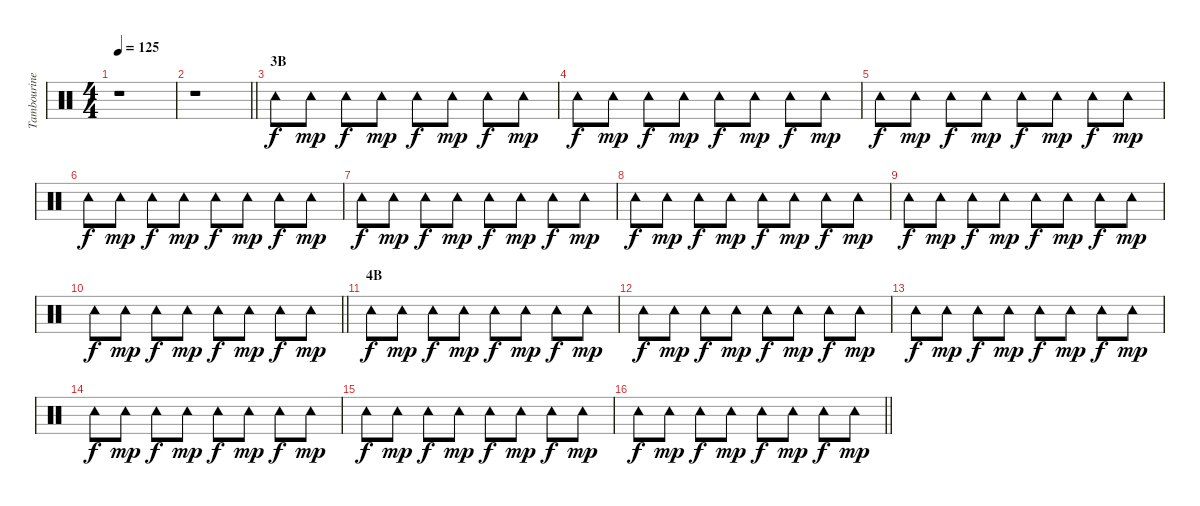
\track ("Tambourine" "Tambourine") {instrument percussion}
\staff {score}
\articulation defaults
\ts (4 4)
\tempo 125
\clef neutral
\ks c
r.1{dy f} |
\barLineRight lightlight
r.1 |
\section ("" "3B")
"Tambourine (hit)".8 "Tambourine (hit)".8{dy mp} "Tambourine (hit)".8{dy f} "Tambourine (hit)".8{dy mp} "Tambourine (hit)".8{dy f} "Tambourine (hit)".8{dy mp} "Tambourine (hit)".8{dy f} "Tambourine (hit)".8{dy mp} |
"Tambourine (hit)".8{dy f} "Tambourine (hit)".8{dy mp} "Tambourine (hit)".8{dy f} "Tambourine (hit)".8{dy mp} "Tambourine (hit)".8{dy f} "Tambourine (hit)".8{dy mp} "Tambourine (hit)".8{dy f} "Tambourine (hit)".8{dy mp} |
"Tambourine (hit)".8{dy f} "Tambourine (hit)".8{dy mp} "Tambourine (hit)".8{dy f} "Tambourine (hit)".8{dy mp} "Tambourine (hit)".8{dy f} "Tambourine (hit)".8{dy mp} "Tambourine (hit)".8{dy f} "Tambourine (hit)".8{dy mp} |
"Tambourine (hit)".8{dy f} "Tambourine (hit)".8{dy mp} "Tambourine (hit)".8{dy f} "Tambourine (hit)".8{dy mp} "Tambourine (hit)".8{dy f} "Tambourine (hit)".8{dy mp} "Tambourine (hit)".8{dy f} "Tambourine (hit)".8{dy mp} |
"Tambourine (hit)".8{dy f} "Tambourine (hit)".8{dy mp} "Tambourine (hit)".8{dy f} "Tambourine (hit)".8{dy mp} "Tambourine (hit)".8{dy f} "Tambourine (hit)".8{dy mp} "Tambourine (hit)".8{dy f} "Tambourine (hit)".8{dy mp} |
"Tambourine (hit)".8{dy f} "Tambourine (hit)".8{dy mp} "Tambourine (hit)".8{dy f} "Tambourine (hit)".8{dy mp} "Tambourine (hit)".8{dy f} "Tambourine (hit)".8{dy mp} "Tambourine (hit)".8{dy f} "Tambourine (hit)".8{dy mp} |
"Tambourine (hit)".8{dy f} "Tambourine (hit)".8{dy mp} "Tambourine (hit)".8{dy f} "Tambourine (hit)".8{dy mp} "Tambourine (hit)".8{dy f} "Tambourine (hit)".8{dy mp} "Tambourine (hit)".8{dy f} "Tambourine (hit)".8{dy mp} |
\barLineRight lightlight "Tambourine (hit)".8{dy f} "Tambourine (hit)".8{dy mp} "Tambourine (hit)".8{dy f} "Tambourine (hit)".8{dy mp} "Tambourine (hit)".8{dy f} "Tambourine (hit)".8{dy mp} "Tambourine (hit)".8{dy f} "Tambourine (hit)".8{dy mp}
|
\section ("" "4B")
"Tambourine (hit)".8{dy f} "Tambourine (hit)".8{dy mp} "Tambourine (hit)".8{dy f} "Tambourine (hit)".8{dy mp} "Tambourine (hit)".8{dy f} "Tambourine (hit)".8{dy mp} "Tambourine (hit)".8{dy f} "Tambourine (hit)".8{dy mp} |
"Tambourine (hit)".8{dy f} "Tambourine (hit)".8{dy mp} "Tambourine (hit)".8{dy f} "Tambourine (hit)".8{dy mp} "Tambourine (hit)".8{dy f} "Tambourine (hit)".8{dy mp} "Tambourine (hit)".8{dy f} "Tambourine (hit)".8{dy mp} |
"Tambourine (hit)".8{dy f} "Tambourine (hit)".8{dy mp} "Tambourine (hit)".8{dy f} "Tambourine (hit)".8{dy mp} "Tambourine (hit)".8{dy f} "Tambourine (hit)".8{dy mp} "Tambourine (hit)".8{dy f} "Tambourine (hit)".8{dy mp} |
"Tambourine (hit)".8{dy f} "Tambourine (hit)".8{dy mp} "Tambourine (hit)".8{dy f} "Tambourine (hit)".8{dy mp} "Tambourine (hit)".8{dy f} "Tambourine (hit)".8{dy mp} "Tambourine (hit)".8{dy f} "Tambourine (hit)".8{dy mp} |
"Tambourine (hit)".8{dy f} "Tambourine (hit)".8{dy mp} "Tambourine (hit)".8{dy f} "Tambourine (hit)".8{dy mp} "Tambourine (hit)".8{dy f} "Tambourine (hit)".8{dy mp} "Tambourine (hit)".8{dy f} "Tambourine (hit)".8{dy mp} |
\barLineRight lightlight "Tambourine (hit)".8{dy f} "Tambourine (hit)".8{dy mp} "Tambourine (hit)".8{dy f} "Tambourine (hit)".8{dy mp} "Tambourine (hit)".8{dy f} "Tambourine (hit)".8{dy mp} "Tambourine (hit)".8{dy f} "Tambourine (hit)".8{dy mp}
